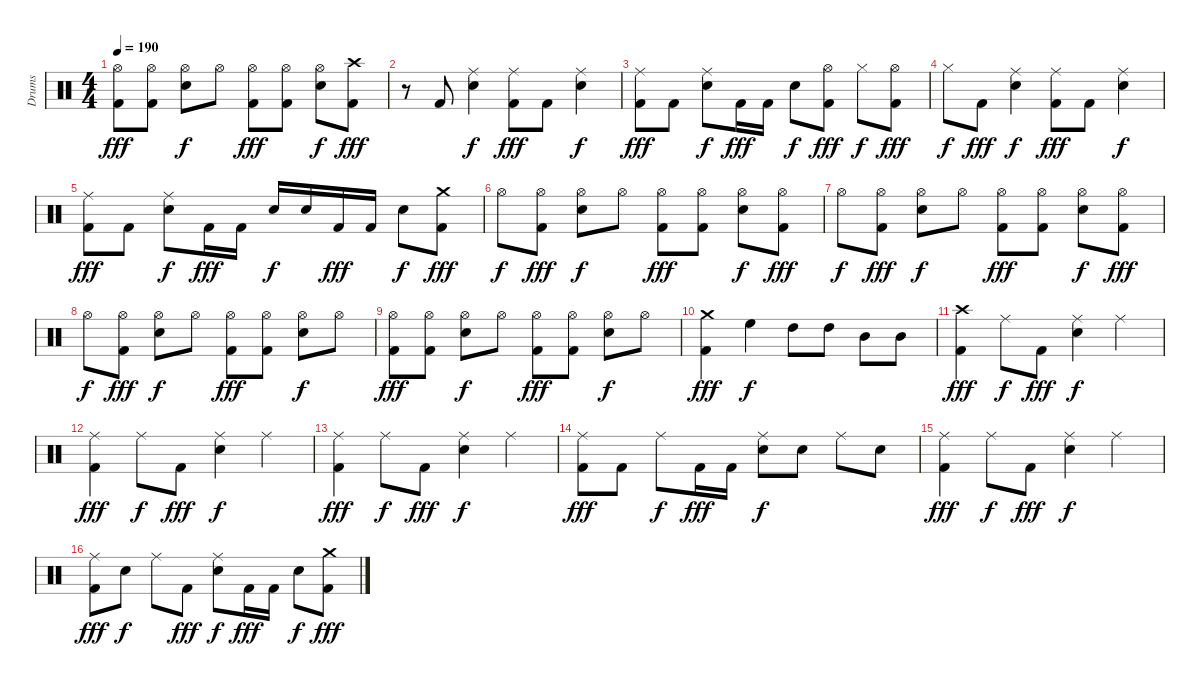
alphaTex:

\track ("Drums" "Drums") {instrument percussion}
\staff {score}
\articulation defaults
\ts (4 4)
\tempo 190
\clef neutral
\ks c
("Hi-Hat (open)" "Kick (hit) 2").8{dy fff} ("Hi-Hat (open)" "Kick (hit) 2").8 ("Hi-Hat (open)" "Electric Snare (hit)").8{dy f} "Hi-Hat (open)".8 ("Hi-Hat (open)" "Kick (hit) 2").8{dy fff} ("Hi-Hat (open)" "Kick (hit) 2").8 ("Hi-Hat (open)" "Electric Snare (hit)").8{dy f} ("Crash high (hit)" "Kick (hit) 2").8{dy fff} |
r.8 "Kick (hit) 2".8 ("Ride (middle)" "Electric Snare (hit)").4{dy f} ("Ride (middle)" "Kick (hit) 2").8{dy fff} "Kick (hit) 2".8 ("Ride (middle)" "Electric Snare (hit)").4{dy f} |
("Ride (middle)" "Kick (hit) 2").8{dy fff} "Kick (hit) 2".8 ("Ride (middle)" "Electric Snare (hit)").8{dy f} "Kick (hit) 2".16{dy fff} "Kick (hit) 2".16 "Electric Snare (hit)".8{dy f} ("Hi-Hat (open)" "Kick (hit) 2").8{dy fff} "Hi-Hat (closed)".8{dy f} ("Hi-Hat (open)" "Kick (hit) 2").8{dy fff} |
"Hi-Hat (closed)".8{dy f} "Kick (hit) 2".8{dy fff} ("Ride (middle)" "Electric Snare (hit)").4{dy f} ("Ride (middle)" "Kick (hit) 2").8{dy fff} "Kick (hit) 2".8 ("Ride (middle)" "Electric Snare (hit)").4{dy f} |
("Ride (middle)" "Kick (hit) 2").8{dy fff} "Kick (hit) 2".8 ("Ride (middle)" "Electric Snare (hit)").8{dy f} "Kick (hit) 2".16{dy fff} "Kick (hit) 2".16 "Electric Snare (hit)".16{dy f} "Electric Snare (hit)".16 "Kick (hit) 2".16{dy fff} "Kick (hit) 2".16 "Electric Snare (hit)".8{dy f} ("Crash medium (hit)" "Kick (hit) 2").8{dy fff} |
"Hi-Hat (open)".8{dy f} ("Hi-Hat (open)" "Kick (hit) 2").8{dy fff} ("Hi-Hat (open)" "Electric Snare (hit)").8{dy f} "Hi-Hat (open)".8 ("Hi-Hat (open)" "Kick (hit) 2").8{dy fff} ("Hi-Hat (open)" "Kick (hit) 2").8 ("Hi-Hat (open)" "Electric Snare (hit)").8{dy f} ("Hi-Hat (open)" "Kick (hit) 2").8{dy fff} |
"Hi-Hat (open)".8{dy f} ("Hi-Hat (open)" "Kick (hit) 2").8{dy fff} ("Hi-Hat (open)" "Electric Snare (hit)").8{dy f} "Hi-Hat (open)".8 ("Hi-Hat (open)" "Kick (hit) 2").8{dy fff} ("Hi-Hat (open)" "Kick (hit) 2").8 ("Hi-Hat (open)" "Electric Snare (hit)").8{dy f} ("Hi-Hat (open)" "Kick (hit) 2").8{dy fff} |
"Hi-Hat (open)".8{dy f} ("Hi-Hat (open)" "Kick (hit) 2").8{dy fff} ("Hi-Hat (open)" "Electric Snare (hit)").8{dy f} "Hi-Hat (open)".8 ("Hi-Hat (open)" "Kick (hit) 2").8{dy fff} ("Hi-Hat (open)" "Kick (hit) 2").8 ("Hi-Hat (open)" "Electric Snare (hit)").8{dy f} "Hi-Hat (open)".8 |
("Hi-Hat (open)" "Kick (hit) 2").8{dy fff} ("Hi-Hat (open)" "Kick (hit) 2").8 ("Hi-Hat (open)" "Electric Snare (hit)").8{dy f} "Hi-Hat (open)".8 ("Hi-Hat (open)" "Kick (hit) 2").8{dy fff} ("Hi-Hat (open)" "Kick (hit) 2").8 ("Hi-Hat (open)" "Electric Snare (hit)").8{dy f} "Hi-Hat (open)".8 |
("Crash medium (hit)" "Kick (hit) 2").4{dy fff} "High Floor Tom (hit)".4{dy f} "High Tom (hit)".8 "High Tom (hit)".8 "Mid Tom (hit)".8 "Mid Tom (hit)".8 |
("Crash high (hit)" "Kick (hit) 2").4{dy fff} "Ride (middle)".8{dy f} "Kick (hit) 2".8{dy fff} ("Ride (middle)" "Electric Snare (hit)").4{dy f} "Ride (middle)".4 |
("Ride (middle)" "Kick (hit) 2").4{dy fff} "Ride (middle)".8{dy f} "Kick (hit) 2".8{dy fff} ("Ride (middle)" "Electric Snare (hit)").4{dy f} "Ride (middle)".4 |
("Ride (middle)" "Kick (hit) 2").4{dy fff} "Ride (middle)".8{dy f} "Kick (hit) 2".8{dy fff} ("Ride (middle)" "Electric Snare (hit)").4{dy f} "Ride (middle)".4 |
("Ride (middle)" "Kick (hit) 2").8{dy fff} "Kick (hit) 2".8 "Ride (middle)".8{dy f} "Kick (hit) 2".16{dy fff} "Kick (hit) 2".16 ("Ride (middle)" "Electric Snare (hit)").8{dy f} "Electric Snare (hit)".8 "Ride (middle)".8 "Electric Snare (hit)".8 |
("Ride (middle)" "Kick (hit) 2").4{dy fff} "Ride (middle)".8{dy f} "Kick (hit) 2".8{dy fff} ("Ride (middle)" "Electric Snare (hit)").4{dy f} "Ride (middle)".4 |
("Ride (middle)" "Kick (hit) 2").8{dy fff} "Electric Snare (hit)".8{dy f} "Ride (middle)".8 "Kick (hit) 2".8{dy fff} ("Ride (middle)" "Electric Snare (hit)").8{dy f} "Kick (hit) 2".16{dy fff} "Kick (hit) 2".16 "Electric Snare (hit)".8{dy f} ("Crash medium (hit)" "Kick (hit) 2").8{dy fff}
